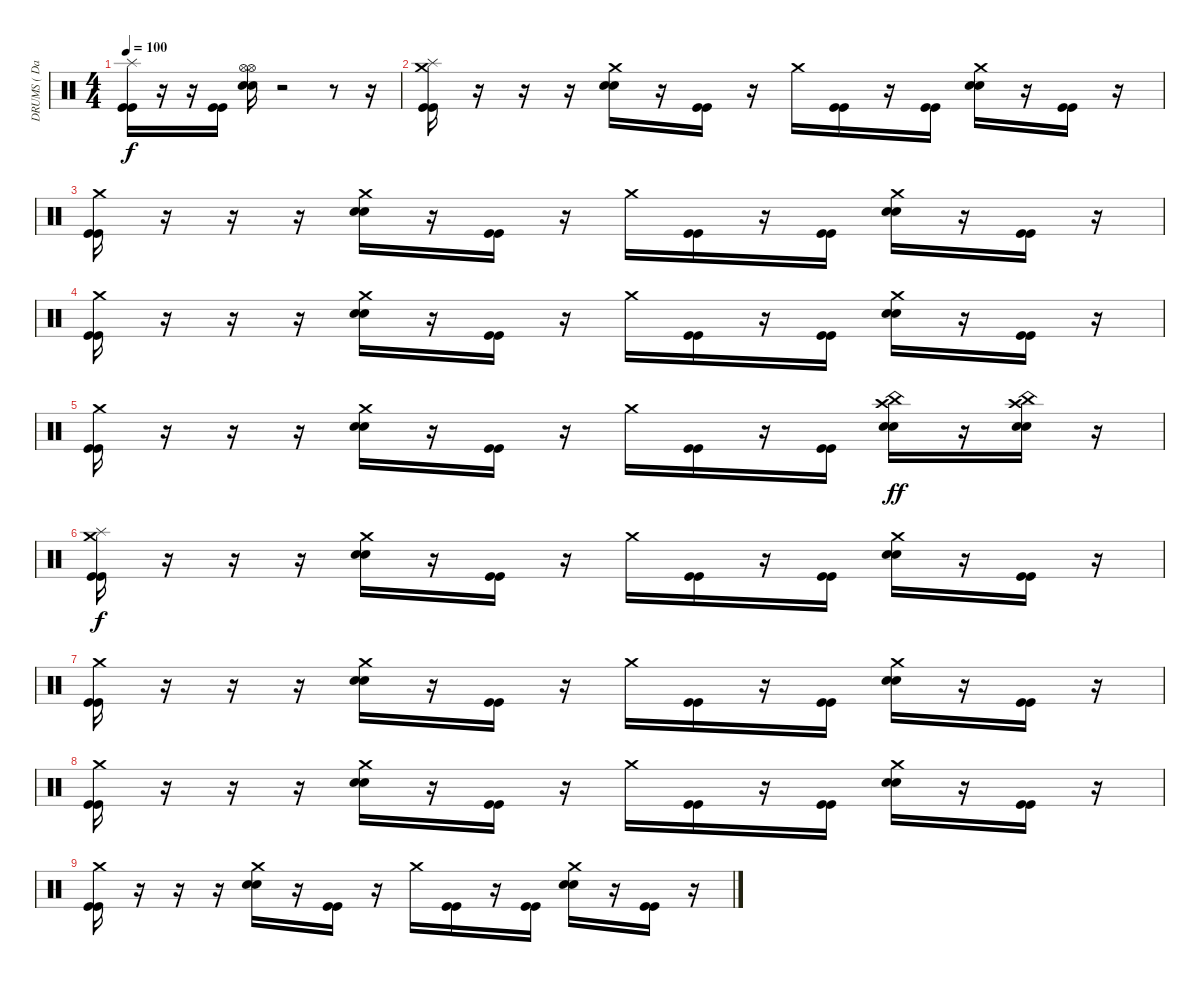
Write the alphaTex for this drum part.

\track ("DRUMS ( David ) - Wally Balljacker" "DRUMS ( Da") {instrument percussion}
\staff {score}
\articulation defaults
\ts (4 4)
\tempo 100
\clef neutral
\ks c
("Splash (hit)" "Kick (hit)" "Kick (hit)").16{dy f} r.16 r.16 ("Kick (hit)" "Kick (hit)").16 ("Hi-Hat (open)" "Hi-Hat (open)" "Electric Snare (hit)" "Electric Snare (hit)").16 r.2 r.8 r.16 |
("Crash medium (hit)" "Splash (hit)" "Kick (hit)" "Kick (hit)").16 r.16 r.16 r.16 ("Crash medium (hit)" "Electric Snare (hit)" "Electric Snare (hit)").16 r.16 ("Kick (hit)" "Kick (hit)").16 r.16 "Crash medium (hit)".16 ("Kick (hit)" "Kick (hit)").16 r.16 ("Kick (hit)" "Kick (hit)").16 ("Crash medium (hit)" "Electric Snare (hit)" "Electric Snare (hit)").16 r.16 ("Kick (hit)" "Kick (hit)").16 r.16 |
("Crash medium (hit)" "Kick (hit)" "Kick (hit)").16 r.16 r.16 r.16 ("Crash medium (hit)" "Electric Snare (hit)" "Electric Snare (hit)").16 r.16 ("Kick (hit)" "Kick (hit)").16 r.16 "Crash medium (hit)".16 ("Kick (hit)" "Kick (hit)").16 r.16 ("Kick (hit)" "Kick (hit)").16 ("Crash medium (hit)" "Electric Snare (hit)" "Electric Snare (hit)").16 r.16 ("Kick (hit)" "Kick (hit)").16 r.16 |
("Crash medium (hit)" "Kick (hit)" "Kick (hit)").16 r.16 r.16 r.16 ("Crash medium (hit)" "Electric Snare (hit)" "Electric Snare (hit)").16 r.16 ("Kick (hit)" "Kick (hit)").16 r.16 "Crash medium (hit)".16 ("Kick (hit)" "Kick (hit)").16 r.16 ("Kick (hit)" "Kick (hit)").16 ("Crash medium (hit)" "Electric Snare (hit)" "Electric Snare (hit)").16 r.16 ("Kick (hit)" "Kick (hit)").16 r.16 |
("Crash medium (hit)" "Kick (hit)" "Kick (hit)").16 r.16 r.16 r.16 ("Crash medium (hit)" "Electric Snare (hit)" "Electric Snare (hit)").16 r.16 ("Kick (hit)" "Kick (hit)").16 r.16 "Crash medium (hit)".16 ("Kick (hit)" "Kick (hit)").16 r.16 ("Kick (hit)" "Kick (hit)").16 ("Crash high (hit)" "China (hit)" "Electric Snare (hit)" "Electric Snare (hit)").16{dy ff} r.16 ("Crash high (hit)" "China (hit)" "Electric Snare (hit)" "Electric Snare (hit)").16 r.16 |
("Crash medium (hit)" "Splash (hit)" "Kick (hit)" "Kick (hit)").16{dy f} r.16 r.16 r.16 ("Crash medium (hit)" "Electric Snare (hit)" "Electric Snare (hit)").16 r.16 ("Kick (hit)" "Kick (hit)").16 r.16 "Crash medium (hit)".16 ("Kick (hit)" "Kick (hit)").16 r.16 ("Kick (hit)" "Kick (hit)").16 ("Crash medium (hit)" "Electric Snare (hit)" "Electric Snare (hit)").16 r.16 ("Kick (hit)" "Kick (hit)").16 r.16 |
("Crash medium (hit)" "Kick (hit)" "Kick (hit)").16 r.16 r.16 r.16 ("Crash medium (hit)" "Electric Snare (hit)" "Electric Snare (hit)").16 r.16 ("Kick (hit)" "Kick (hit)").16 r.16 "Crash medium (hit)".16 ("Kick (hit)" "Kick (hit)").16 r.16 ("Kick (hit)" "Kick (hit)").16 ("Crash medium (hit)" "Electric Snare (hit)" "Electric Snare (hit)").16 r.16 ("Kick (hit)" "Kick (hit)").16 r.16 |
("Crash medium (hit)" "Kick (hit)" "Kick (hit)").16 r.16 r.16 r.16 ("Crash medium (hit)" "Electric Snare (hit)" "Electric Snare (hit)").16 r.16 ("Kick (hit)" "Kick (hit)").16 r.16 "Crash medium (hit)".16 ("Kick (hit)" "Kick (hit)").16 r.16 ("Kick (hit)" "Kick (hit)").16 ("Crash medium (hit)" "Electric Snare (hit)" "Electric Snare (hit)").16 r.16 ("Kick (hit)" "Kick (hit)").16 r.16 |
("Crash medium (hit)" "Kick (hit)" "Kick (hit)").16 r.16 r.16 r.16 ("Crash medium (hit)" "Electric Snare (hit)" "Electric Snare (hit)").16 r.16 ("Kick (hit)" "Kick (hit)").16 r.16 "Crash medium (hit)".16 ("Kick (hit)" "Kick (hit)").16 r.16 ("Kick (hit)" "Kick (hit)").16 ("Crash medium (hit)" "Electric Snare (hit)" "Electric Snare (hit)").16 r.16 ("Kick (hit)" "Kick (hit)").16 r.16
